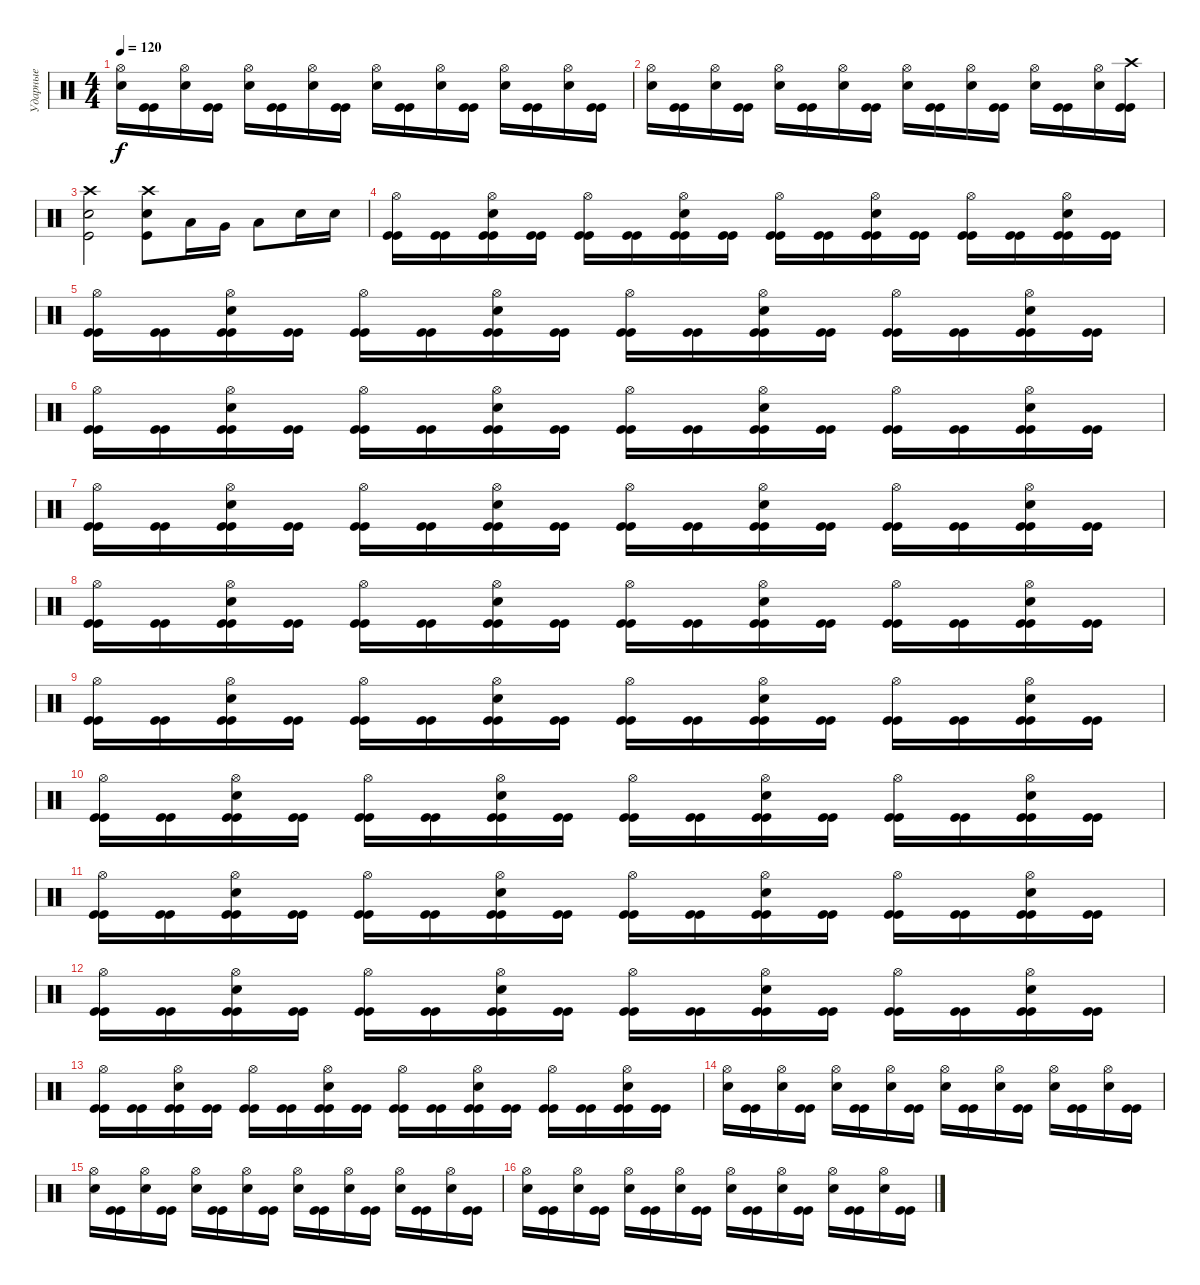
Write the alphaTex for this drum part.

\track ("Ударные" "Ударные") {instrument percussion}
\staff {score}
\articulation defaults
\ts (4 4)
\tempo 120
\clef neutral
\ks c
("Hi-Hat (open)" "Snare (hit) 2").16{dy f} ("Kick (hit)" "Kick (hit)").16 ("Hi-Hat (open)" "Snare (hit) 2").16 ("Kick (hit)" "Kick (hit)").16 ("Hi-Hat (open)" "Snare (hit) 2").16 ("Kick (hit)" "Kick (hit)").16 ("Hi-Hat (open)" "Snare (hit) 2").16 ("Kick (hit)" "Kick (hit)").16 ("Hi-Hat (open)" "Snare (hit) 2").16 ("Kick (hit)" "Kick (hit)").16 ("Hi-Hat (open)" "Snare (hit) 2").16 ("Kick (hit)" "Kick (hit)").16 ("Hi-Hat (open)" "Snare (hit) 2").16 ("Kick (hit)" "Kick (hit)").16 ("Hi-Hat (open)" "Snare (hit) 2").16 ("Kick (hit)" "Kick (hit)").16 |
("Hi-Hat (open)" "Snare (hit) 2").16 ("Kick (hit)" "Kick (hit)").16 ("Hi-Hat (open)" "Snare (hit) 2").16 ("Kick (hit)" "Kick (hit)").16 ("Hi-Hat (open)" "Snare (hit) 2").16 ("Kick (hit)" "Kick (hit)").16 ("Hi-Hat (open)" "Snare (hit) 2").16 ("Kick (hit)" "Kick (hit)").16 ("Hi-Hat (open)" "Snare (hit) 2").16 ("Kick (hit)" "Kick (hit)").16 ("Hi-Hat (open)" "Snare (hit) 2").16 ("Kick (hit)" "Kick (hit)").16 ("Hi-Hat (open)" "Snare (hit) 2").16 ("Kick (hit)" "Kick (hit)").16 ("Hi-Hat (open)" "Snare (hit) 2").16 ("Crash high (hit)" "Kick (hit)" "Kick (hit)").16 |
("Crash high (hit)" "Kick (hit)" "Snare (hit) 2").2 ("Crash high (hit)" "Kick (hit)" "Snare (hit) 2").8 "Low Tom (hit)".16 "Very Low Tom (hit)".16 "Low Floor Tom (hit)".8 "Snare (hit) 2".16 "Snare (hit) 2".16 |
("Hi-Hat (open)" "Kick (hit)" "Kick (hit)").16 ("Kick (hit)" "Kick (hit)").16 ("Hi-Hat (open)" "Snare (hit) 2" "Kick (hit)" "Kick (hit)").16 ("Kick (hit)" "Kick (hit)").16 ("Hi-Hat (open)" "Kick (hit)" "Kick (hit)").16 ("Kick (hit)" "Kick (hit)").16 ("Hi-Hat (open)" "Snare (hit) 2" "Kick (hit)" "Kick (hit)").16 ("Kick (hit)" "Kick (hit)").16 ("Hi-Hat (open)" "Kick (hit)" "Kick (hit)").16 ("Kick (hit)" "Kick (hit)").16 ("Hi-Hat (open)" "Snare (hit) 2" "Kick (hit)" "Kick (hit)").16 ("Kick (hit)" "Kick (hit)").16 ("Hi-Hat (open)" "Kick (hit)" "Kick (hit)").16 ("Kick (hit)" "Kick (hit)").16 ("Hi-Hat (open)" "Snare (hit) 2" "Kick (hit)" "Kick (hit)").16 ("Kick (hit)" "Kick (hit)").16 |
("Hi-Hat (open)" "Kick (hit)" "Kick (hit)").16 ("Kick (hit)" "Kick (hit)").16 ("Hi-Hat (open)" "Snare (hit) 2" "Kick (hit)" "Kick (hit)").16 ("Kick (hit)" "Kick (hit)").16 ("Hi-Hat (open)" "Kick (hit)" "Kick (hit)").16 ("Kick (hit)" "Kick (hit)").16 ("Hi-Hat (open)" "Snare (hit) 2" "Kick (hit)" "Kick (hit)").16 ("Kick (hit)" "Kick (hit)").16 ("Hi-Hat (open)" "Kick (hit)" "Kick (hit)").16 ("Kick (hit)" "Kick (hit)").16 ("Hi-Hat (open)" "Snare (hit) 2" "Kick (hit)" "Kick (hit)").16 ("Kick (hit)" "Kick (hit)").16 ("Hi-Hat (open)" "Kick (hit)" "Kick (hit)").16 ("Kick (hit)" "Kick (hit)").16 ("Hi-Hat (open)" "Snare (hit) 2" "Kick (hit)" "Kick (hit)").16 ("Kick (hit)" "Kick (hit)").16 |
("Hi-Hat (open)" "Kick (hit)" "Kick (hit)").16 ("Kick (hit)" "Kick (hit)").16 ("Hi-Hat (open)" "Snare (hit) 2" "Kick (hit)" "Kick (hit)").16 ("Kick (hit)" "Kick (hit)").16 ("Hi-Hat (open)" "Kick (hit)" "Kick (hit)").16 ("Kick (hit)" "Kick (hit)").16 ("Hi-Hat (open)" "Snare (hit) 2" "Kick (hit)" "Kick (hit)").16 ("Kick (hit)" "Kick (hit)").16 ("Hi-Hat (open)" "Kick (hit)" "Kick (hit)").16 ("Kick (hit)" "Kick (hit)").16 ("Hi-Hat (open)" "Snare (hit) 2" "Kick (hit)" "Kick (hit)").16 ("Kick (hit)" "Kick (hit)").16 ("Hi-Hat (open)" "Kick (hit)" "Kick (hit)").16 ("Kick (hit)" "Kick (hit)").16 ("Hi-Hat (open)" "Snare (hit) 2" "Kick (hit)" "Kick (hit)").16 ("Kick (hit)" "Kick (hit)").16 |
("Hi-Hat (open)" "Kick (hit)" "Kick (hit)").16 ("Kick (hit)" "Kick (hit)").16 ("Hi-Hat (open)" "Snare (hit) 2" "Kick (hit)" "Kick (hit)").16 ("Kick (hit)" "Kick (hit)").16 ("Hi-Hat (open)" "Kick (hit)" "Kick (hit)").16 ("Kick (hit)" "Kick (hit)").16 ("Hi-Hat (open)" "Snare (hit) 2" "Kick (hit)" "Kick (hit)").16 ("Kick (hit)" "Kick (hit)").16 ("Hi-Hat (open)" "Kick (hit)" "Kick (hit)").16 ("Kick (hit)" "Kick (hit)").16 ("Hi-Hat (open)" "Snare (hit) 2" "Kick (hit)" "Kick (hit)").16 ("Kick (hit)" "Kick (hit)").16 ("Hi-Hat (open)" "Kick (hit)" "Kick (hit)").16 ("Kick (hit)" "Kick (hit)").16 ("Hi-Hat (open)" "Snare (hit) 2" "Kick (hit)" "Kick (hit)").16 ("Kick (hit)" "Kick (hit)").16 |
("Hi-Hat (open)" "Kick (hit)" "Kick (hit)").16 ("Kick (hit)" "Kick (hit)").16 ("Hi-Hat (open)" "Snare (hit) 2" "Kick (hit)" "Kick (hit)").16 ("Kick (hit)" "Kick (hit)").16 ("Hi-Hat (open)" "Kick (hit)" "Kick (hit)").16 ("Kick (hit)" "Kick (hit)").16 ("Hi-Hat (open)" "Snare (hit) 2" "Kick (hit)" "Kick (hit)").16 ("Kick (hit)" "Kick (hit)").16 ("Hi-Hat (open)" "Kick (hit)" "Kick (hit)").16 ("Kick (hit)" "Kick (hit)").16 ("Hi-Hat (open)" "Snare (hit) 2" "Kick (hit)" "Kick (hit)").16 ("Kick (hit)" "Kick (hit)").16 ("Hi-Hat (open)" "Kick (hit)" "Kick (hit)").16 ("Kick (hit)" "Kick (hit)").16 ("Hi-Hat (open)" "Snare (hit) 2" "Kick (hit)" "Kick (hit)").16 ("Kick (hit)" "Kick (hit)").16 |
("Hi-Hat (open)" "Kick (hit)" "Kick (hit)").16 ("Kick (hit)" "Kick (hit)").16 ("Hi-Hat (open)" "Snare (hit) 2" "Kick (hit)" "Kick (hit)").16 ("Kick (hit)" "Kick (hit)").16 ("Hi-Hat (open)" "Kick (hit)" "Kick (hit)").16 ("Kick (hit)" "Kick (hit)").16 ("Hi-Hat (open)" "Snare (hit) 2" "Kick (hit)" "Kick (hit)").16 ("Kick (hit)" "Kick (hit)").16 ("Hi-Hat (open)" "Kick (hit)" "Kick (hit)").16 ("Kick (hit)" "Kick (hit)").16 ("Hi-Hat (open)" "Snare (hit) 2" "Kick (hit)" "Kick (hit)").16 ("Kick (hit)" "Kick (hit)").16 ("Hi-Hat (open)" "Kick (hit)" "Kick (hit)").16 ("Kick (hit)" "Kick (hit)").16 ("Hi-Hat (open)" "Snare (hit) 2" "Kick (hit)" "Kick (hit)").16 ("Kick (hit)" "Kick (hit)").16 |
("Hi-Hat (open)" "Kick (hit)" "Kick (hit)").16 ("Kick (hit)" "Kick (hit)").16 ("Hi-Hat (open)" "Snare (hit) 2" "Kick (hit)" "Kick (hit)").16 ("Kick (hit)" "Kick (hit)").16 ("Hi-Hat (open)" "Kick (hit)" "Kick (hit)").16 ("Kick (hit)" "Kick (hit)").16 ("Hi-Hat (open)" "Snare (hit) 2" "Kick (hit)" "Kick (hit)").16 ("Kick (hit)" "Kick (hit)").16 ("Hi-Hat (open)" "Kick (hit)" "Kick (hit)").16 ("Kick (hit)" "Kick (hit)").16 ("Hi-Hat (open)" "Snare (hit) 2" "Kick (hit)" "Kick (hit)").16 ("Kick (hit)" "Kick (hit)").16 ("Hi-Hat (open)" "Kick (hit)" "Kick (hit)").16 ("Kick (hit)" "Kick (hit)").16 ("Hi-Hat (open)" "Snare (hit) 2" "Kick (hit)" "Kick (hit)").16 ("Kick (hit)" "Kick (hit)").16 |
("Hi-Hat (open)" "Kick (hit)" "Kick (hit)").16 ("Kick (hit)" "Kick (hit)").16 ("Hi-Hat (open)" "Snare (hit) 2" "Kick (hit)" "Kick (hit)").16 ("Kick (hit)" "Kick (hit)").16 ("Hi-Hat (open)" "Kick (hit)" "Kick (hit)").16 ("Kick (hit)" "Kick (hit)").16 ("Hi-Hat (open)" "Snare (hit) 2" "Kick (hit)" "Kick (hit)").16 ("Kick (hit)" "Kick (hit)").16 ("Hi-Hat (open)" "Kick (hit)" "Kick (hit)").16 ("Kick (hit)" "Kick (hit)").16 ("Hi-Hat (open)" "Snare (hit) 2" "Kick (hit)" "Kick (hit)").16 ("Kick (hit)" "Kick (hit)").16 ("Hi-Hat (open)" "Kick (hit)" "Kick (hit)").16 ("Kick (hit)" "Kick (hit)").16 ("Hi-Hat (open)" "Snare (hit) 2" "Kick (hit)" "Kick (hit)").16 ("Kick (hit)" "Kick (hit)").16 |
("Hi-Hat (open)" "Kick (hit)" "Kick (hit)").16 ("Kick (hit)" "Kick (hit)").16 ("Hi-Hat (open)" "Snare (hit) 2" "Kick (hit)" "Kick (hit)").16 ("Kick (hit)" "Kick (hit)").16 ("Hi-Hat (open)" "Kick (hit)" "Kick (hit)").16 ("Kick (hit)" "Kick (hit)").16 ("Hi-Hat (open)" "Snare (hit) 2" "Kick (hit)" "Kick (hit)").16 ("Kick (hit)" "Kick (hit)").16 ("Hi-Hat (open)" "Kick (hit)" "Kick (hit)").16 ("Kick (hit)" "Kick (hit)").16 ("Hi-Hat (open)" "Snare (hit) 2" "Kick (hit)" "Kick (hit)").16 ("Kick (hit)" "Kick (hit)").16 ("Hi-Hat (open)" "Kick (hit)" "Kick (hit)").16 ("Kick (hit)" "Kick (hit)").16 ("Hi-Hat (open)" "Snare (hit) 2" "Kick (hit)" "Kick (hit)").16 ("Kick (hit)" "Kick (hit)").16 |
("Hi-Hat (open)" "Kick (hit)" "Kick (hit)").16 ("Kick (hit)" "Kick (hit)").16 ("Hi-Hat (open)" "Snare (hit) 2" "Kick (hit)" "Kick (hit)").16 ("Kick (hit)" "Kick (hit)").16 ("Hi-Hat (open)" "Kick (hit)" "Kick (hit)").16 ("Kick (hit)" "Kick (hit)").16 ("Hi-Hat (open)" "Snare (hit) 2" "Kick (hit)" "Kick (hit)").16 ("Kick (hit)" "Kick (hit)").16 ("Hi-Hat (open)" "Kick (hit)" "Kick (hit)").16 ("Kick (hit)" "Kick (hit)").16 ("Hi-Hat (open)" "Snare (hit) 2" "Kick (hit)" "Kick (hit)").16 ("Kick (hit)" "Kick (hit)").16 ("Hi-Hat (open)" "Kick (hit)" "Kick (hit)").16 ("Kick (hit)" "Kick (hit)").16 ("Hi-Hat (open)" "Snare (hit) 2" "Kick (hit)" "Kick (hit)").16 ("Kick (hit)" "Kick (hit)").16 |
("Hi-Hat (open)" "Snare (hit) 2").16 ("Kick (hit)" "Kick (hit)").16 ("Hi-Hat (open)" "Snare (hit) 2").16 ("Kick (hit)" "Kick (hit)").16 ("Hi-Hat (open)" "Snare (hit) 2").16 ("Kick (hit)" "Kick (hit)").16 ("Hi-Hat (open)" "Snare (hit) 2").16 ("Kick (hit)" "Kick (hit)").16 ("Hi-Hat (open)" "Snare (hit) 2").16 ("Kick (hit)" "Kick (hit)").16 ("Hi-Hat (open)" "Snare (hit) 2").16 ("Kick (hit)" "Kick (hit)").16 ("Hi-Hat (open)" "Snare (hit) 2").16 ("Kick (hit)" "Kick (hit)").16 ("Hi-Hat (open)" "Snare (hit) 2").16 ("Kick (hit)" "Kick (hit)").16 |
("Hi-Hat (open)" "Snare (hit) 2").16 ("Kick (hit)" "Kick (hit)").16 ("Hi-Hat (open)" "Snare (hit) 2").16 ("Kick (hit)" "Kick (hit)").16 ("Hi-Hat (open)" "Snare (hit) 2").16 ("Kick (hit)" "Kick (hit)").16 ("Hi-Hat (open)" "Snare (hit) 2").16 ("Kick (hit)" "Kick (hit)").16 ("Hi-Hat (open)" "Snare (hit) 2").16 ("Kick (hit)" "Kick (hit)").16 ("Hi-Hat (open)" "Snare (hit) 2").16 ("Kick (hit)" "Kick (hit)").16 ("Hi-Hat (open)" "Snare (hit) 2").16 ("Kick (hit)" "Kick (hit)").16 ("Hi-Hat (open)" "Snare (hit) 2").16 ("Kick (hit)" "Kick (hit)").16 |
("Hi-Hat (open)" "Snare (hit) 2").16 ("Kick (hit)" "Kick (hit)").16 ("Hi-Hat (open)" "Snare (hit) 2").16 ("Kick (hit)" "Kick (hit)").16 ("Hi-Hat (open)" "Snare (hit) 2").16 ("Kick (hit)" "Kick (hit)").16 ("Hi-Hat (open)" "Snare (hit) 2").16 ("Kick (hit)" "Kick (hit)").16 ("Hi-Hat (open)" "Snare (hit) 2").16 ("Kick (hit)" "Kick (hit)").16 ("Hi-Hat (open)" "Snare (hit) 2").16 ("Kick (hit)" "Kick (hit)").16 ("Hi-Hat (open)" "Snare (hit) 2").16 ("Kick (hit)" "Kick (hit)").16 ("Hi-Hat (open)" "Snare (hit) 2").16 ("Kick (hit)" "Kick (hit)").16
